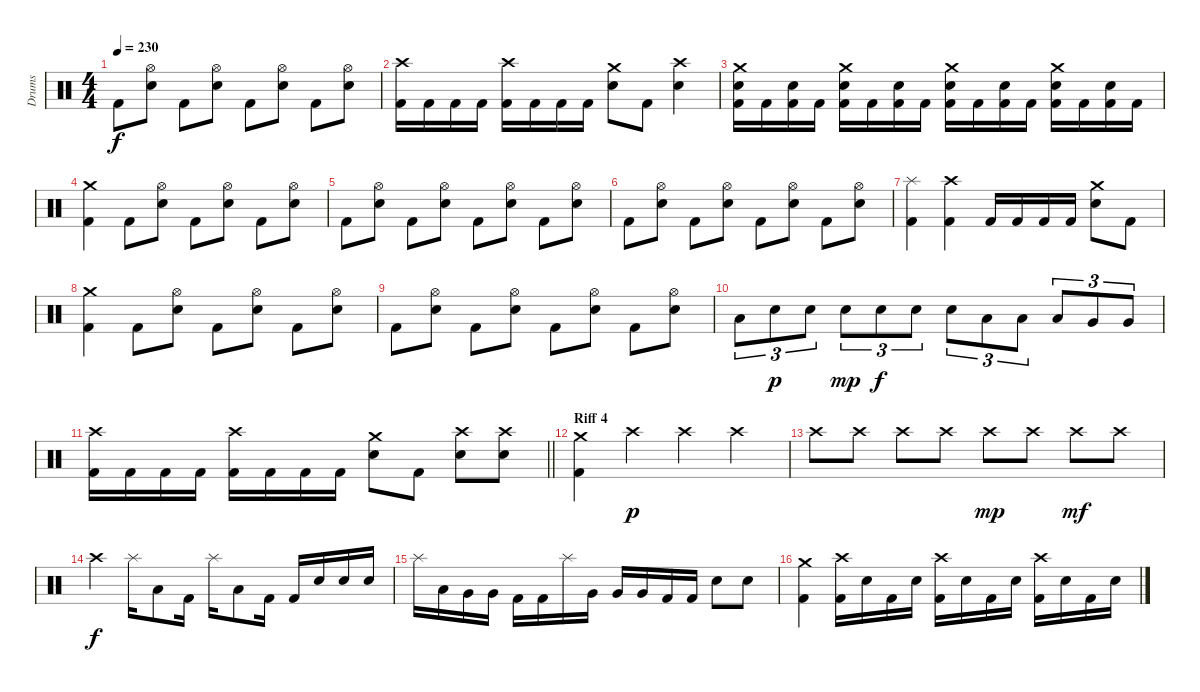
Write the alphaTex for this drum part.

\track ("Drums" "Drums") {instrument percussion}
\staff {score}
\articulation defaults
\ts (4 4)
\tempo 230
\clef neutral
\ks c "Kick (hit) 2".8{dy f}
("Hi-Hat (open)" "Electric Snare (hit)").8 "Kick (hit) 2".8 ("Hi-Hat (open)" "Electric Snare (hit)").8 "Kick (hit) 2".8 ("Hi-Hat (open)" "Electric Snare (hit)").8 "Kick (hit) 2".8 ("Hi-Hat (open)" "Electric Snare (hit)").8 |
("Crash high (hit)" "Kick (hit) 2").16 "Kick (hit) 2".16 "Kick (hit) 2".16 "Kick (hit) 2".16 ("Crash high (hit)" "Kick (hit) 2").16 "Kick (hit) 2".16 "Kick (hit) 2".16 "Kick (hit) 2".16 ("Electric Snare (hit)" "Crash medium (hit)").8 "Kick (hit) 2".8 ("Electric Snare (hit)" "Crash high (hit)").4 |
("Kick (hit) 2" "Electric Snare (hit)" "Crash medium (hit)").16 "Kick (hit) 2".16 ("Kick (hit) 2" "Electric Snare (hit)").16 "Kick (hit) 2".16 ("Kick (hit) 2" "Electric Snare (hit)" "Crash medium (hit)").16 "Kick (hit) 2".16 ("Kick (hit) 2" "Electric Snare (hit)").16 "Kick (hit) 2".16 ("Kick (hit) 2" "Electric Snare (hit)" "Crash medium (hit)").16 "Kick (hit) 2".16 ("Kick (hit) 2" "Electric Snare (hit)").16 "Kick (hit) 2".16 ("Kick (hit) 2" "Electric Snare (hit)" "Crash medium (hit)").16 "Kick (hit) 2".16 ("Kick (hit) 2" "Electric Snare (hit)").16 "Kick (hit) 2".16 |
("Kick (hit) 2" "Crash medium (hit)").4 "Kick (hit) 2".8 ("Hi-Hat (open)" "Electric Snare (hit)").8 "Kick (hit) 2".8 ("Hi-Hat (open)" "Electric Snare (hit)").8 "Kick (hit) 2".8 ("Hi-Hat (open)" "Electric Snare (hit)").8 |
"Kick (hit) 2".8 ("Hi-Hat (open)" "Electric Snare (hit)").8 "Kick (hit) 2".8 ("Hi-Hat (open)" "Electric Snare (hit)").8 "Kick (hit) 2".8 ("Hi-Hat (open)" "Electric Snare (hit)").8 "Kick (hit) 2".8 ("Hi-Hat (open)" "Electric Snare (hit)").8 |
"Kick (hit) 2".8 ("Hi-Hat (open)" "Electric Snare (hit)").8 "Kick (hit) 2".8 ("Hi-Hat (open)" "Electric Snare (hit)").8 "Kick (hit) 2".8 ("Hi-Hat (open)" "Electric Snare (hit)").8 "Kick (hit) 2".8 ("Hi-Hat (open)" "Electric Snare (hit)").8 |
("Kick (hit) 2" "Splash (hit)").4 ("Kick (hit) 2" "Crash high (hit)").4 "Kick (hit) 2".16 "Kick (hit) 2".16 "Kick (hit) 2".16 "Kick (hit) 2".16 ("Crash medium (hit)" "Electric Snare (hit)").8 "Kick (hit) 2".8 |
("Kick (hit) 2" "Crash medium (hit)").4 "Kick (hit) 2".8 ("Hi-Hat (open)" "Electric Snare (hit)").8 "Kick (hit) 2".8 ("Hi-Hat (open)" "Electric Snare (hit)").8 "Kick (hit) 2".8 ("Hi-Hat (open)" "Electric Snare (hit)").8 |
"Kick (hit) 2".8 ("Hi-Hat (open)" "Electric Snare (hit)").8 "Kick (hit) 2".8 ("Hi-Hat (open)" "Electric Snare (hit)").8 "Kick (hit) 2".8 ("Hi-Hat (open)" "Electric Snare (hit)").8 "Kick (hit) 2".8 ("Hi-Hat (open)" "Electric Snare (hit)").8 |
"Low Tom (hit)".8{tu (3 2)} "Electric Snare (hit)".8{tu (3 2) dy p} "Electric Snare (hit)".8{tu (3 2)} "Electric Snare (hit)".8{tu (3 2) dy mp} "Electric Snare (hit)".8{tu (3 2) dy f} "Electric Snare (hit)".8{tu (3 2)} "Electric Snare (hit)".8{tu (3 2)} "Low Tom (hit)".8{tu (3 2)} "Low Tom (hit)".8{tu (3 2)} "Low Tom (hit)".8{tu (3 2)} "Very Low Tom (hit)".8{tu (3 2)} "Very Low Tom (hit)".8{tu (3 2)} |
\barLineRight lightlight
("Crash high (hit)" "Kick (hit) 2").16 "Kick (hit) 2".16 "Kick (hit) 2".16 "Kick (hit) 2".16 ("Crash high (hit)" "Kick (hit) 2").16 "Kick (hit) 2".16 "Kick (hit) 2".16 "Kick (hit) 2".16 ("Electric Snare (hit)" "Crash medium (hit)").8 "Kick (hit) 2".8 ("Electric Snare (hit)" "Crash high (hit)").8 ("Electric Snare (hit)" "Crash high (hit)").8 |
\section ("" "Riff 4")
("Crash medium (hit)" "Kick (hit) 2").4 "Crash high (hit)".4{dy p} "Crash high (hit)".4 "Crash high (hit)".4 |
"Crash high (hit)".8 "Crash high (hit)".8 "Crash high (hit)".8 "Crash high (hit)".8 "Crash high (hit)".8{dy mp} "Crash high (hit)".8 "Crash high (hit)".8{dy mf} "Crash high (hit)".8 |
"Crash high (hit)".4{dy f} "Splash (hit)".16 "Low Tom (hit)".8 "Kick (hit) 2".16 "Splash (hit)".16 "Low Tom (hit)".8 "Kick (hit) 2".16 "Kick (hit) 2".16 "Electric Snare (hit)".16 "Electric Snare (hit)".16 "Electric Snare (hit)".16 |
"Splash (hit)".16 "Low Tom (hit)".16 "Very Low Tom (hit)".16 "Very Low Tom (hit)".16 "Kick (hit) 2".16 "Kick (hit) 2".16 "Splash (hit)".16 "Very Low Tom (hit)".16 "Very Low Tom (hit)".16 "Very Low Tom (hit)".16 "Kick (hit) 2".16 "Kick (hit) 2".16 "Electric Snare (hit)".8 "Electric Snare (hit)".8 |
("Kick (hit) 2" "Crash medium (hit)").4 ("Kick (hit) 2" "Crash high (hit)").16 "Electric Snare (hit)".16 "Kick (hit) 2".16 "Electric Snare (hit)".16 ("Kick (hit) 2" "Crash high (hit)").16 "Electric Snare (hit)".16 "Kick (hit) 2".16 "Electric Snare (hit)".16 ("Kick (hit) 2" "Crash high (hit)").16 "Electric Snare (hit)".16 "Kick (hit) 2".16 "Electric Snare (hit)".16
